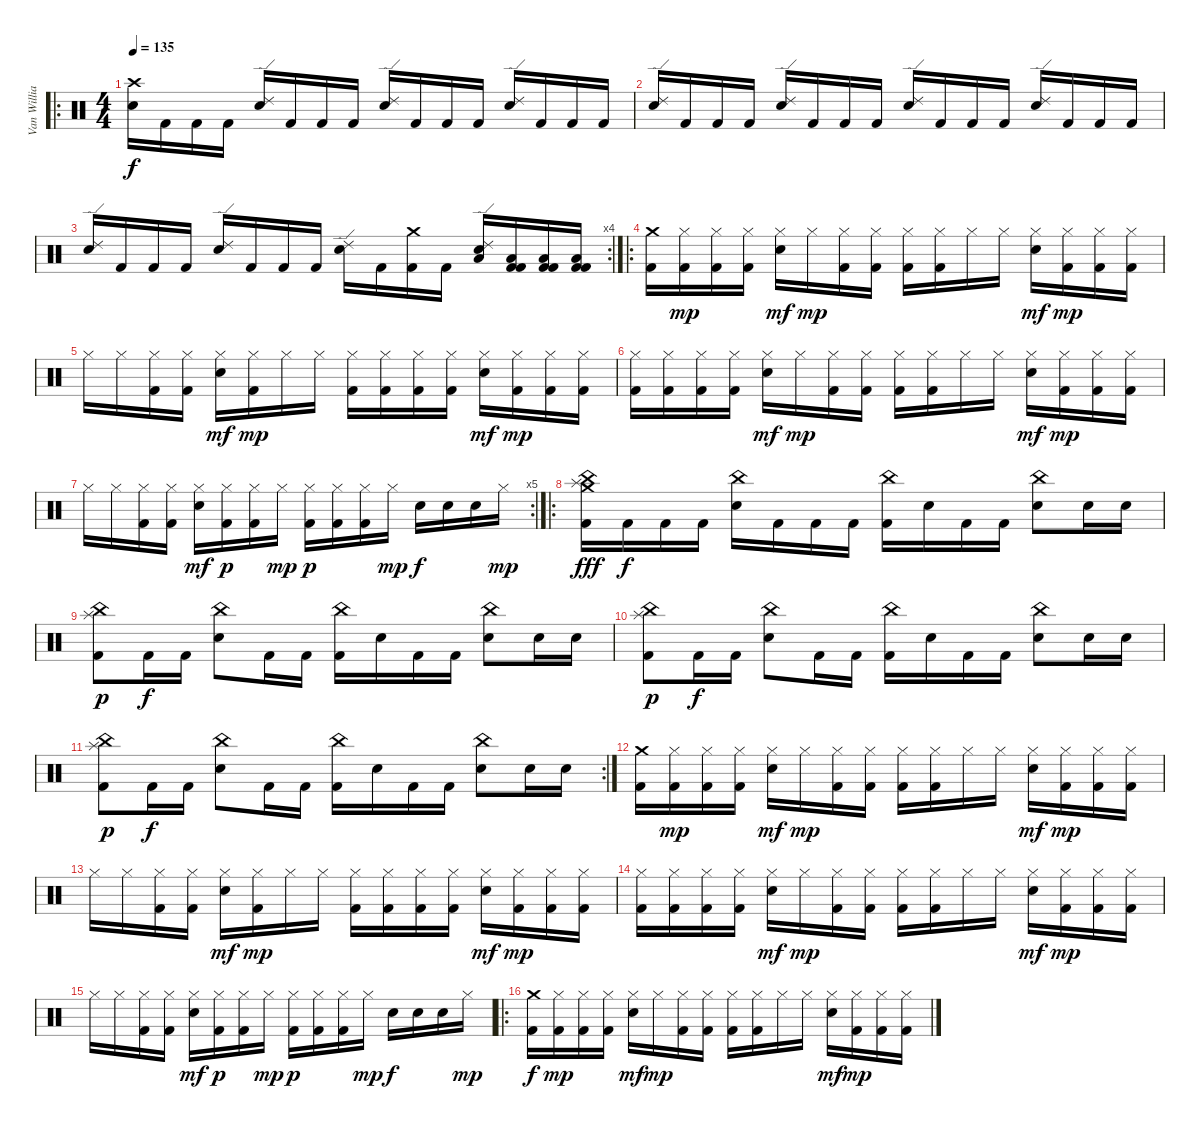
\track ("Van Williams" "Van Willia") {instrument percussion}
\staff {score}
\articulation defaults
\ro
\ts (4 4)
\tempo 135
\clef neutral
\ks c
("Crash high (hit)" "Electric Snare (hit)").16{dy f} "Kick (hit) 2".16 "Kick (hit) 2".16 "Kick (hit) 2".16 ("Ride (edge) 2" "Electric Snare (hit)").16 "Kick (hit) 2".16 "Kick (hit) 2".16 "Kick (hit) 2".16 ("Ride (edge) 2" "Electric Snare (hit)").16 "Kick (hit) 2".16 "Kick (hit) 2".16 "Kick (hit) 2".16 ("Ride (edge) 2" "Electric Snare (hit)").16 "Kick (hit) 2".16 "Kick (hit) 2".16 "Kick (hit) 2".16 |
("Ride (edge) 2" "Electric Snare (hit)").16 "Kick (hit) 2".16 "Kick (hit) 2".16 "Kick (hit) 2".16 ("Ride (edge) 2" "Electric Snare (hit)").16 "Kick (hit) 2".16 "Kick (hit) 2".16 "Kick (hit) 2".16 ("Ride (edge) 2" "Electric Snare (hit)").16 "Kick (hit) 2".16 "Kick (hit) 2".16 "Kick (hit) 2".16 ("Ride (edge) 2" "Electric Snare (hit)").16 "Kick (hit) 2".16 "Kick (hit) 2".16 "Kick (hit) 2".16 |
\rc 4
("Ride (edge) 2" "Electric Snare (hit)").16 "Kick (hit) 2".16 "Kick (hit) 2".16 "Kick (hit) 2".16 ("Ride (edge) 2" "Electric Snare (hit)").16 "Kick (hit) 2".16 "Kick (hit) 2".16 "Kick (hit) 2".16 ("Ride (edge) 2" "Electric Snare (hit)").16 "Kick (hit) 2".16 ("Crash medium (hit)" "Kick (hit) 2").16 "Kick (hit) 2".16 ("Ride (edge) 2" "Low Floor Tom (hit)" "Electric Snare (hit)").16 ("Low Floor Tom (hit)" "Kick (hit) 2" "Kick (hit) 2").16 ("Low Floor Tom (hit)" "Kick (hit) 2" "Kick (hit) 2").16 ("Low Floor Tom (hit)" "Kick (hit) 2" "Kick (hit) 2").16 |
\ro
("Crash medium (hit)" "Kick (hit) 2").16 ("Hi-Hat (closed)" "Kick (hit) 2").16{dy mp} ("Hi-Hat (closed)" "Kick (hit) 2").16 ("Hi-Hat (closed)" "Kick (hit) 2").16 ("Hi-Hat (closed)" "Electric Snare (hit)").16{dy mf} "Hi-Hat (closed)".16{dy mp} ("Hi-Hat (closed)" "Kick (hit) 2").16 ("Hi-Hat (closed)" "Kick (hit) 2").16 ("Hi-Hat (closed)" "Kick (hit) 2").16 ("Hi-Hat (closed)" "Kick (hit) 2").16 "Hi-Hat (closed)".16 "Hi-Hat (closed)".16 ("Hi-Hat (closed)" "Electric Snare (hit)").16{dy mf} ("Hi-Hat (closed)" "Kick (hit) 2").16{dy mp} ("Hi-Hat (closed)" "Kick (hit) 2").16 ("Hi-Hat (closed)" "Kick (hit) 2").16 |
"Hi-Hat (closed)".16 "Hi-Hat (closed)".16 ("Hi-Hat (closed)" "Kick (hit) 2").16 ("Hi-Hat (closed)" "Kick (hit) 2").16 ("Hi-Hat (closed)" "Electric Snare (hit)").16{dy mf} ("Hi-Hat (closed)" "Kick (hit) 2").16{dy mp} "Hi-Hat (closed)".16 "Hi-Hat (closed)".16 ("Hi-Hat (closed)" "Kick (hit) 2").16 ("Hi-Hat (closed)" "Kick (hit) 2").16 ("Hi-Hat (closed)" "Kick (hit) 2").16 ("Hi-Hat (closed)" "Kick (hit) 2").16 ("Hi-Hat (closed)" "Electric Snare (hit)").16{dy mf} ("Hi-Hat (closed)" "Kick (hit) 2").16{dy mp} ("Hi-Hat (closed)" "Kick (hit) 2").16 ("Hi-Hat (closed)" "Kick (hit) 2").16 |
("Hi-Hat (closed)" "Kick (hit) 2").16 ("Hi-Hat (closed)" "Kick (hit) 2").16 ("Hi-Hat (closed)" "Kick (hit) 2").16 ("Hi-Hat (closed)" "Kick (hit) 2").16 ("Hi-Hat (closed)" "Electric Snare (hit)").16{dy mf} "Hi-Hat (closed)".16{dy mp} ("Hi-Hat (closed)" "Kick (hit) 2").16 ("Hi-Hat (closed)" "Kick (hit) 2").16 ("Hi-Hat (closed)" "Kick (hit) 2").16 ("Hi-Hat (closed)" "Kick (hit) 2").16 "Hi-Hat (closed)".16 "Hi-Hat (closed)".16 ("Hi-Hat (closed)" "Electric Snare (hit)").16{dy mf} ("Hi-Hat (closed)" "Kick (hit) 2").16{dy mp} ("Hi-Hat (closed)" "Kick (hit) 2").16 ("Hi-Hat (closed)" "Kick (hit) 2").16 |
\rc 5 "Hi-Hat (closed)".16 "Hi-Hat (closed)".16
("Hi-Hat (closed)" "Kick (hit) 2").16 ("Hi-Hat (closed)" "Kick (hit) 2").16 ("Hi-Hat (closed)" "Electric Snare (hit)").16{dy mf} ("Hi-Hat (closed)" "Kick (hit) 2").16{dy p} ("Hi-Hat (closed)" "Kick (hit) 2").16 "Hi-Hat (closed)".16{dy mp} ("Hi-Hat (closed)" "Kick (hit) 2").16{dy p} ("Hi-Hat (closed)" "Kick (hit) 2").16 ("Hi-Hat (closed)" "Kick (hit) 2").16 "Hi-Hat (closed)".16{dy mp} "Electric Snare (hit)".16{dy f} "Electric Snare (hit)".16 "Electric Snare (hit)".16 "Hi-Hat (closed)".16{dy mp} |
\ro
("Crash medium (hit)" "China (hit)" "Splash (hit)" "Kick (hit) 2").16{dy fff} "Kick (hit) 2".16{dy f} "Kick (hit) 2".16 "Kick (hit) 2".16 ("China (hit)" "Electric Snare (hit)").16 "Kick (hit) 2".16 "Kick (hit) 2".16 "Kick (hit) 2".16 ("China (hit)" "Kick (hit) 2").16 "Electric Snare (hit)".16 "Kick (hit) 2".16 "Kick (hit) 2".16 ("China (hit)" "Electric Snare (hit)").8 "Electric Snare (hit)".16 "Electric Snare (hit)".16 |
("China (hit)" "Splash (hit)" "Kick (hit) 2").8{dy p} "Kick (hit) 2".16{dy f} "Kick (hit) 2".16 ("China (hit)" "Electric Snare (hit)").8 "Kick (hit) 2".16 "Kick (hit) 2".16 ("China (hit)" "Kick (hit) 2").16 "Electric Snare (hit)".16 "Kick (hit) 2".16 "Kick (hit) 2".16 ("China (hit)" "Electric Snare (hit)").8 "Electric Snare (hit)".16 "Electric Snare (hit)".16 |
("China (hit)" "Splash (hit)" "Kick (hit) 2").8{dy p} "Kick (hit) 2".16{dy f} "Kick (hit) 2".16 ("China (hit)" "Electric Snare (hit)").8 "Kick (hit) 2".16 "Kick (hit) 2".16 ("China (hit)" "Kick (hit) 2").16 "Electric Snare (hit)".16 "Kick (hit) 2".16 "Kick (hit) 2".16 ("China (hit)" "Electric Snare (hit)").8 "Electric Snare (hit)".16 "Electric Snare (hit)".16 |
\rc 2
("China (hit)" "Splash (hit)" "Kick (hit) 2").8{dy p} "Kick (hit) 2".16{dy f} "Kick (hit) 2".16 ("China (hit)" "Electric Snare (hit)").8 "Kick (hit) 2".16 "Kick (hit) 2".16 ("China (hit)" "Kick (hit) 2").16 "Electric Snare (hit)".16 "Kick (hit) 2".16 "Kick (hit) 2".16 ("China (hit)" "Electric Snare (hit)").8 "Electric Snare (hit)".16 "Electric Snare (hit)".16 |
("Crash medium (hit)" "Kick (hit) 2").16 ("Hi-Hat (closed)" "Kick (hit) 2").16{dy mp} ("Hi-Hat (closed)" "Kick (hit) 2").16 ("Hi-Hat (closed)" "Kick (hit) 2").16 ("Hi-Hat (closed)" "Electric Snare (hit)").16{dy mf} "Hi-Hat (closed)".16{dy mp} ("Hi-Hat (closed)" "Kick (hit) 2").16 ("Hi-Hat (closed)" "Kick (hit) 2").16 ("Hi-Hat (closed)" "Kick (hit) 2").16 ("Hi-Hat (closed)" "Kick (hit) 2").16 "Hi-Hat (closed)".16 "Hi-Hat (closed)".16 ("Hi-Hat (closed)" "Electric Snare (hit)").16{dy mf} ("Hi-Hat (closed)" "Kick (hit) 2").16{dy mp} ("Hi-Hat (closed)" "Kick (hit) 2").16 ("Hi-Hat (closed)" "Kick (hit) 2").16 |
"Hi-Hat (closed)".16 "Hi-Hat (closed)".16 ("Hi-Hat (closed)" "Kick (hit) 2").16 ("Hi-Hat (closed)" "Kick (hit) 2").16 ("Hi-Hat (closed)" "Electric Snare (hit)").16{dy mf} ("Hi-Hat (closed)" "Kick (hit) 2").16{dy mp} "Hi-Hat (closed)".16 "Hi-Hat (closed)".16 ("Hi-Hat (closed)" "Kick (hit) 2").16 ("Hi-Hat (closed)" "Kick (hit) 2").16 ("Hi-Hat (closed)" "Kick (hit) 2").16 ("Hi-Hat (closed)" "Kick (hit) 2").16 ("Hi-Hat (closed)" "Electric Snare (hit)").16{dy mf} ("Hi-Hat (closed)" "Kick (hit) 2").16{dy mp} ("Hi-Hat (closed)" "Kick (hit) 2").16 ("Hi-Hat (closed)" "Kick (hit) 2").16 |
("Hi-Hat (closed)" "Kick (hit) 2").16 ("Hi-Hat (closed)" "Kick (hit) 2").16 ("Hi-Hat (closed)" "Kick (hit) 2").16 ("Hi-Hat (closed)" "Kick (hit) 2").16 ("Hi-Hat (closed)" "Electric Snare (hit)").16{dy mf} "Hi-Hat (closed)".16{dy mp} ("Hi-Hat (closed)" "Kick (hit) 2").16 ("Hi-Hat (closed)" "Kick (hit) 2").16 ("Hi-Hat (closed)" "Kick (hit) 2").16 ("Hi-Hat (closed)" "Kick (hit) 2").16 "Hi-Hat (closed)".16 "Hi-Hat (closed)".16 ("Hi-Hat (closed)" "Electric Snare (hit)").16{dy mf} ("Hi-Hat (closed)" "Kick (hit) 2").16{dy mp} ("Hi-Hat (closed)" "Kick (hit) 2").16 ("Hi-Hat (closed)" "Kick (hit) 2").16 |
"Hi-Hat (closed)".16 "Hi-Hat (closed)".16 ("Hi-Hat (closed)" "Kick (hit) 2").16 ("Hi-Hat (closed)" "Kick (hit) 2").16 ("Hi-Hat (closed)" "Electric Snare (hit)").16{dy mf} ("Hi-Hat (closed)" "Kick (hit) 2").16{dy p} ("Hi-Hat (closed)" "Kick (hit) 2").16 "Hi-Hat (closed)".16{dy mp} ("Hi-Hat (closed)" "Kick (hit) 2").16{dy p} ("Hi-Hat (closed)" "Kick (hit) 2").16 ("Hi-Hat (closed)" "Kick (hit) 2").16 "Hi-Hat (closed)".16{dy mp} "Electric Snare (hit)".16{dy f} "Electric Snare (hit)".16 "Electric Snare (hit)".16 "Hi-Hat (closed)".16{dy mp} |
\ro
("Crash medium (hit)" "Kick (hit) 2").16{dy f} ("Hi-Hat (closed)" "Kick (hit) 2").16{dy mp} ("Hi-Hat (closed)" "Kick (hit) 2").16 ("Hi-Hat (closed)" "Kick (hit) 2").16 ("Hi-Hat (closed)" "Electric Snare (hit)").16{dy mf} "Hi-Hat (closed)".16{dy mp} ("Hi-Hat (closed)" "Kick (hit) 2").16 ("Hi-Hat (closed)" "Kick (hit) 2").16 ("Hi-Hat (closed)" "Kick (hit) 2").16 ("Hi-Hat (closed)" "Kick (hit) 2").16 "Hi-Hat (closed)".16 "Hi-Hat (closed)".16 ("Hi-Hat (closed)" "Electric Snare (hit)").16{dy mf} ("Hi-Hat (closed)" "Kick (hit) 2").16{dy mp} ("Hi-Hat (closed)" "Kick (hit) 2").16 ("Hi-Hat (closed)" "Kick (hit) 2").16
